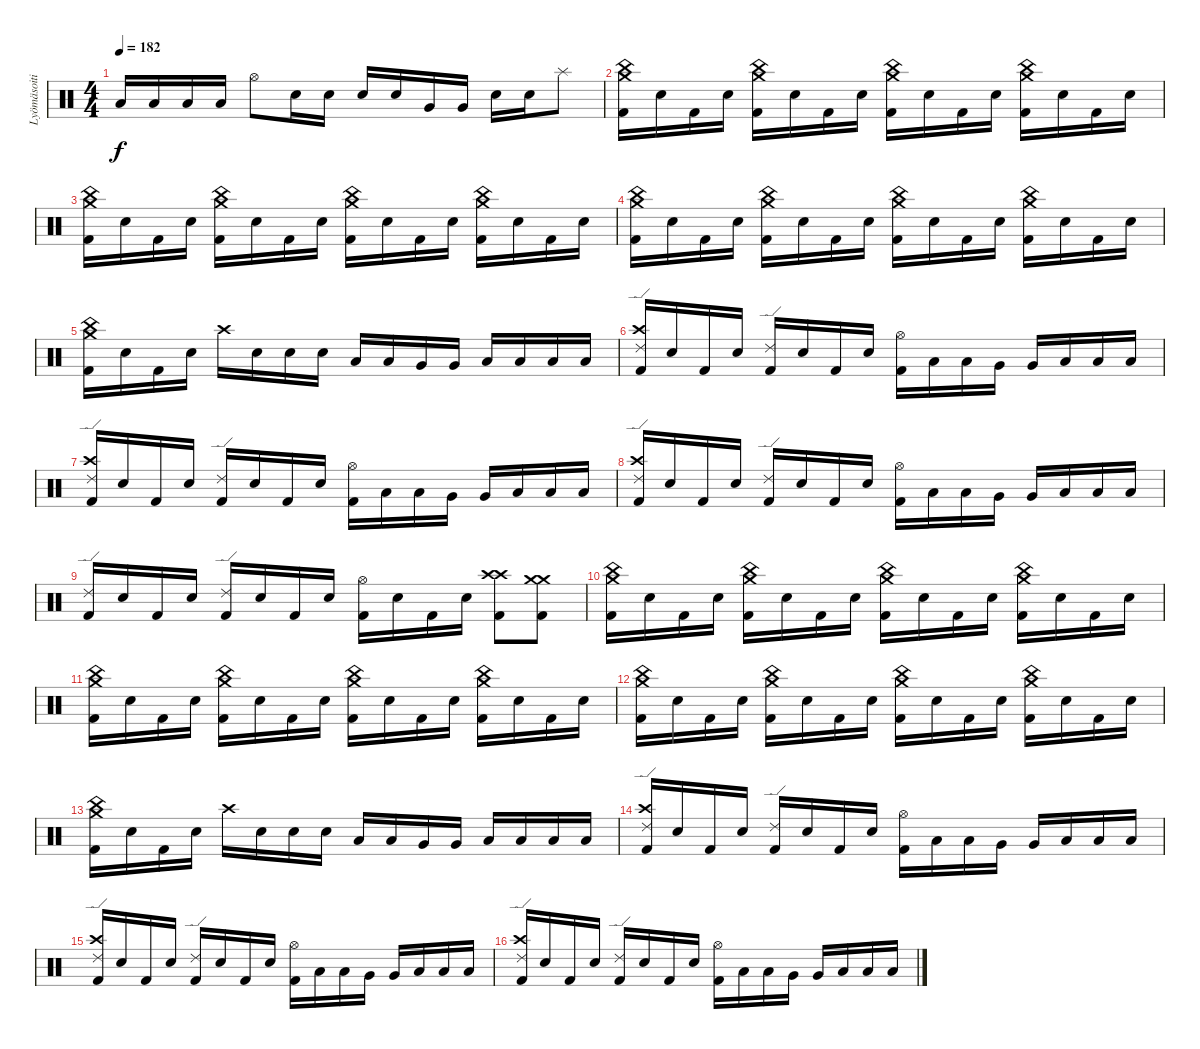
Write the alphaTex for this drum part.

\track ("Lyömäsoitin" "Lyömäsoiti") {instrument percussion}
\staff {score}
\articulation defaults
\ts (4 4)
\tempo 182
\clef neutral
\ks c "Low Tom (hit)".16{dy f} "Low Tom (hit)".16 "Low Floor Tom (hit)".16 "Low Floor Tom (hit)".16 "Hi-Hat (open)".8 "Electric Snare (hit)".16 "Electric Snare (hit)".16 "Electric Snare (hit)".16 "Electric Snare (hit)".16 "Very Low Tom (hit)".16 "Very Low Tom (hit)".16 "Electric Snare (hit)".16 "Electric Snare (hit)".16 "Splash (hit)".8
|
("Crash medium (hit)" "China (hit)" "Kick (hit) 2").16 "Electric Snare (hit)".16 "Kick (hit) 2".16 "Electric Snare (hit)".16 ("Crash medium (hit)" "China (hit)" "Kick (hit) 2").16 "Electric Snare (hit)".16 "Kick (hit) 2".16 "Electric Snare (hit)".16 ("Crash medium (hit)" "China (hit)" "Kick (hit) 2").16 "Electric Snare (hit)".16 "Kick (hit) 2".16 "Electric Snare (hit)".16 ("Crash medium (hit)" "China (hit)" "Kick (hit) 2").16 "Electric Snare (hit)".16 "Kick (hit) 2".16 "Electric Snare (hit)".16 |
("Crash medium (hit)" "China (hit)" "Kick (hit) 2").16 "Electric Snare (hit)".16 "Kick (hit) 2".16 "Electric Snare (hit)".16 ("Crash medium (hit)" "China (hit)" "Kick (hit) 2").16 "Electric Snare (hit)".16 "Kick (hit) 2".16 "Electric Snare (hit)".16 ("Crash medium (hit)" "China (hit)" "Kick (hit) 2").16 "Electric Snare (hit)".16 "Kick (hit) 2".16 "Electric Snare (hit)".16 ("Crash medium (hit)" "China (hit)" "Kick (hit) 2").16 "Electric Snare (hit)".16 "Kick (hit) 2".16 "Electric Snare (hit)".16 |
("Crash medium (hit)" "China (hit)" "Kick (hit) 2").16 "Electric Snare (hit)".16 "Kick (hit) 2".16 "Electric Snare (hit)".16 ("Crash medium (hit)" "China (hit)" "Kick (hit) 2").16 "Electric Snare (hit)".16 "Kick (hit) 2".16 "Electric Snare (hit)".16 ("Crash medium (hit)" "China (hit)" "Kick (hit) 2").16 "Electric Snare (hit)".16 "Kick (hit) 2".16 "Electric Snare (hit)".16 ("Crash medium (hit)" "China (hit)" "Kick (hit) 2").16 "Electric Snare (hit)".16 "Kick (hit) 2".16 "Electric Snare (hit)".16 |
("Crash medium (hit)" "China (hit)" "Kick (hit) 2").16 "Electric Snare (hit)".16 "Kick (hit) 2".16 "Electric Snare (hit)".16 "Crash high (hit)".16 "Electric Snare (hit)".16 "Electric Snare (hit)".16 "Electric Snare (hit)".16 "Low Tom (hit)".16 "Low Tom (hit)".16 "Very Low Tom (hit)".16 "Very Low Tom (hit)".16 "Low Floor Tom (hit)".16 "Low Floor Tom (hit)".16 "Low Floor Tom (hit)".16 "Low Floor Tom (hit)".16 |
("Crash high (hit)" "Ride (edge) 2" "Kick (hit) 2").16 "Electric Snare (hit)".16 "Kick (hit) 2".16 "Electric Snare (hit)".16 ("Ride (edge) 2" "Kick (hit) 2").16 "Electric Snare (hit)".16 "Kick (hit) 2".16 "Electric Snare (hit)".16 ("Hi-Hat (open)" "Kick (hit) 2").16 "Low Tom (hit)".16 "Low Tom (hit)".16 "Very Low Tom (hit)".16 "Very Low Tom (hit)".16 "Low Floor Tom (hit)".16 "Low Floor Tom (hit)".16 "Low Floor Tom (hit)".16 |
("Crash high (hit)" "Ride (edge) 2" "Kick (hit) 2").16 "Electric Snare (hit)".16 "Kick (hit) 2".16 "Electric Snare (hit)".16 ("Ride (edge) 2" "Kick (hit) 2").16 "Electric Snare (hit)".16 "Kick (hit) 2".16 "Electric Snare (hit)".16 ("Hi-Hat (open)" "Kick (hit) 2").16 "Low Tom (hit)".16 "Low Tom (hit)".16 "Very Low Tom (hit)".16 "Very Low Tom (hit)".16 "Low Floor Tom (hit)".16 "Low Floor Tom (hit)".16 "Low Floor Tom (hit)".16 |
("Crash high (hit)" "Ride (edge) 2" "Kick (hit) 2").16 "Electric Snare (hit)".16 "Kick (hit) 2".16 "Electric Snare (hit)".16 ("Ride (edge) 2" "Kick (hit) 2").16 "Electric Snare (hit)".16 "Kick (hit) 2".16 "Electric Snare (hit)".16 ("Hi-Hat (open)" "Kick (hit) 2").16 "Low Tom (hit)".16 "Low Tom (hit)".16 "Very Low Tom (hit)".16 "Very Low Tom (hit)".16 "Low Floor Tom (hit)".16 "Low Floor Tom (hit)".16 "Low Floor Tom (hit)".16 |
("Ride (edge) 2" "Kick (hit) 2").16 "Electric Snare (hit)".16 "Kick (hit) 2".16 "Electric Snare (hit)".16 ("Ride (edge) 2" "Kick (hit) 2").16 "Electric Snare (hit)".16 "Kick (hit) 2".16 "Electric Snare (hit)".16 ("Hi-Hat (open)" "Kick (hit) 2").16 "Electric Snare (hit)".16 "Kick (hit) 2".16 "Electric Snare (hit)".16 ("Crash high (hit)" "Crash high (hit)" "Kick (hit) 2").8 ("Crash medium (hit)" "Crash medium (hit)" "Kick (hit) 2").8 |
("Crash medium (hit)" "China (hit)" "Kick (hit) 2").16 "Electric Snare (hit)".16 "Kick (hit) 2".16 "Electric Snare (hit)".16 ("Crash medium (hit)" "China (hit)" "Kick (hit) 2").16 "Electric Snare (hit)".16 "Kick (hit) 2".16 "Electric Snare (hit)".16 ("Crash medium (hit)" "China (hit)" "Kick (hit) 2").16 "Electric Snare (hit)".16 "Kick (hit) 2".16 "Electric Snare (hit)".16 ("Crash medium (hit)" "China (hit)" "Kick (hit) 2").16 "Electric Snare (hit)".16 "Kick (hit) 2".16 "Electric Snare (hit)".16 |
("Crash medium (hit)" "China (hit)" "Kick (hit) 2").16 "Electric Snare (hit)".16 "Kick (hit) 2".16 "Electric Snare (hit)".16 ("Crash medium (hit)" "China (hit)" "Kick (hit) 2").16 "Electric Snare (hit)".16 "Kick (hit) 2".16 "Electric Snare (hit)".16 ("Crash medium (hit)" "China (hit)" "Kick (hit) 2").16 "Electric Snare (hit)".16 "Kick (hit) 2".16 "Electric Snare (hit)".16 ("Crash medium (hit)" "China (hit)" "Kick (hit) 2").16 "Electric Snare (hit)".16 "Kick (hit) 2".16 "Electric Snare (hit)".16 |
("Crash medium (hit)" "China (hit)" "Kick (hit) 2").16 "Electric Snare (hit)".16 "Kick (hit) 2".16 "Electric Snare (hit)".16 ("Crash medium (hit)" "China (hit)" "Kick (hit) 2").16 "Electric Snare (hit)".16 "Kick (hit) 2".16 "Electric Snare (hit)".16 ("Crash medium (hit)" "China (hit)" "Kick (hit) 2").16 "Electric Snare (hit)".16 "Kick (hit) 2".16 "Electric Snare (hit)".16 ("Crash medium (hit)" "China (hit)" "Kick (hit) 2").16 "Electric Snare (hit)".16 "Kick (hit) 2".16 "Electric Snare (hit)".16 |
("Crash medium (hit)" "China (hit)" "Kick (hit) 2").16 "Electric Snare (hit)".16 "Kick (hit) 2".16 "Electric Snare (hit)".16 "Crash high (hit)".16 "Electric Snare (hit)".16 "Electric Snare (hit)".16 "Electric Snare (hit)".16 "Low Tom (hit)".16 "Low Tom (hit)".16 "Very Low Tom (hit)".16 "Very Low Tom (hit)".16 "Low Floor Tom (hit)".16 "Low Floor Tom (hit)".16 "Low Floor Tom (hit)".16 "Low Floor Tom (hit)".16 |
("Crash high (hit)" "Ride (edge) 2" "Kick (hit) 2").16 "Electric Snare (hit)".16 "Kick (hit) 2".16 "Electric Snare (hit)".16 ("Ride (edge) 2" "Kick (hit) 2").16 "Electric Snare (hit)".16 "Kick (hit) 2".16 "Electric Snare (hit)".16 ("Hi-Hat (open)" "Kick (hit) 2").16 "Low Tom (hit)".16 "Low Tom (hit)".16 "Very Low Tom (hit)".16 "Very Low Tom (hit)".16 "Low Floor Tom (hit)".16 "Low Floor Tom (hit)".16 "Low Floor Tom (hit)".16 |
("Crash high (hit)" "Ride (edge) 2" "Kick (hit) 2").16 "Electric Snare (hit)".16 "Kick (hit) 2".16 "Electric Snare (hit)".16 ("Ride (edge) 2" "Kick (hit) 2").16 "Electric Snare (hit)".16 "Kick (hit) 2".16 "Electric Snare (hit)".16 ("Hi-Hat (open)" "Kick (hit) 2").16 "Low Tom (hit)".16 "Low Tom (hit)".16 "Very Low Tom (hit)".16 "Very Low Tom (hit)".16 "Low Floor Tom (hit)".16 "Low Floor Tom (hit)".16 "Low Floor Tom (hit)".16 |
("Crash high (hit)" "Ride (edge) 2" "Kick (hit) 2").16 "Electric Snare (hit)".16 "Kick (hit) 2".16 "Electric Snare (hit)".16 ("Ride (edge) 2" "Kick (hit) 2").16 "Electric Snare (hit)".16 "Kick (hit) 2".16 "Electric Snare (hit)".16 ("Hi-Hat (open)" "Kick (hit) 2").16 "Low Tom (hit)".16 "Low Tom (hit)".16 "Very Low Tom (hit)".16 "Very Low Tom (hit)".16 "Low Floor Tom (hit)".16 "Low Floor Tom (hit)".16 "Low Floor Tom (hit)".16
